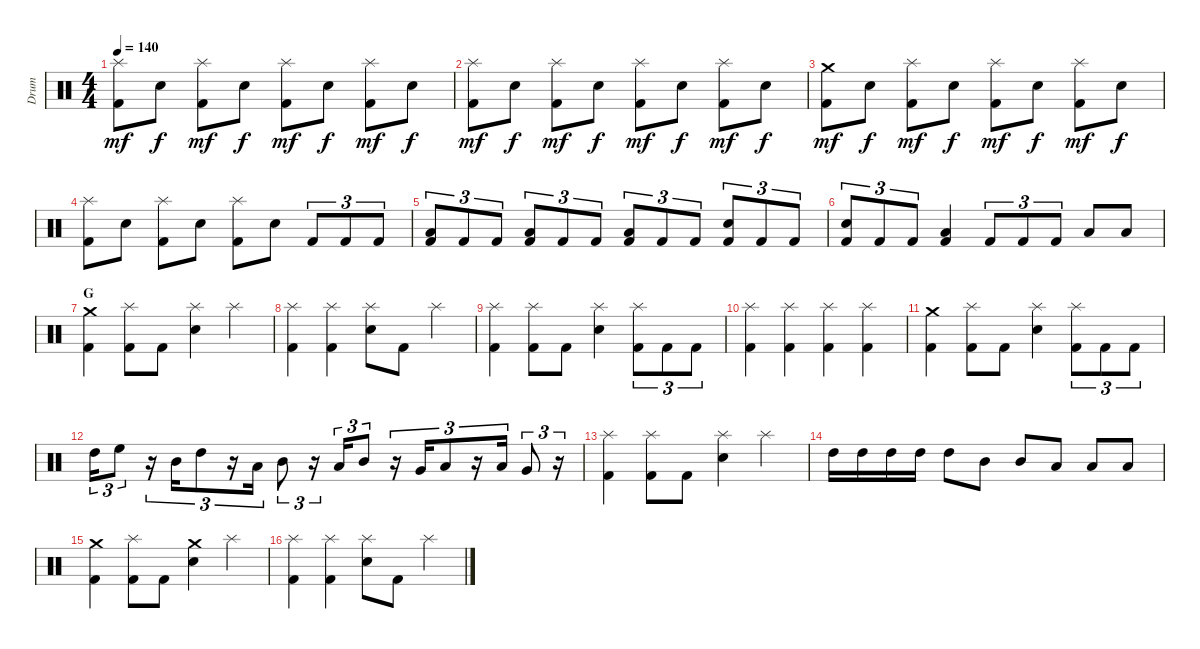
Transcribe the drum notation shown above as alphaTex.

\track ("Drum" "Drum") {instrument percussion}
\staff {score}
\articulation defaults
\ts (4 4)
\tempo 140
\clef neutral
\ks c
("Splash (hit)" "Kick (hit) 2").8{dy mf} "Electric Snare (hit)".8{dy f} ("Splash (hit)" "Kick (hit) 2").8{dy mf} "Electric Snare (hit)".8{dy f} ("Splash (hit)" "Kick (hit) 2").8{dy mf} "Electric Snare (hit)".8{dy f} ("Splash (hit)" "Kick (hit) 2").8{dy mf} "Electric Snare (hit)".8{dy f} |
("Splash (hit)" "Kick (hit) 2").8{dy mf} "Electric Snare (hit)".8{dy f} ("Splash (hit)" "Kick (hit) 2").8{dy mf} "Electric Snare (hit)".8{dy f} ("Splash (hit)" "Kick (hit) 2").8{dy mf} "Electric Snare (hit)".8{dy f} ("Splash (hit)" "Kick (hit) 2").8{dy mf} "Electric Snare (hit)".8{dy f} |
("Crash medium (hit)" "Kick (hit) 2").8{dy mf} "Electric Snare (hit)".8{dy f} ("Splash (hit)" "Kick (hit) 2").8{dy mf} "Electric Snare (hit)".8{dy f} ("Splash (hit)" "Kick (hit) 2").8{dy mf} "Electric Snare (hit)".8{dy f} ("Splash (hit)" "Kick (hit) 2").8{dy mf} "Electric Snare (hit)".8{dy f} |
("Splash (hit)" "Kick (hit) 2").8 "Electric Snare (hit)".8 ("Splash (hit)" "Kick (hit) 2").8 "Electric Snare (hit)".8 ("Splash (hit)" "Kick (hit) 2").8 "Electric Snare (hit)".8 "Kick (hit) 2".8{tu (3 2)} "Kick (hit) 2".8{tu (3 2)} "Kick (hit) 2".8{tu (3 2)} |
("Low Tom (hit)" "Kick (hit) 2").8{tu (3 2)} "Kick (hit) 2".8{tu (3 2)} "Kick (hit) 2".8{tu (3 2)} ("Low Tom (hit)" "Kick (hit) 2").8{tu (3 2)} "Kick (hit) 2".8{tu (3 2)} "Kick (hit) 2".8{tu (3 2)} ("Low Tom (hit)" "Kick (hit) 2").8{tu (3 2)} "Kick (hit) 2".8{tu (3 2)} "Kick (hit) 2".8{tu (3 2)} ("Electric Snare (hit)" "Kick (hit) 2").8{tu (3 2)} "Kick (hit) 2".8{tu (3 2)} "Kick (hit) 2".8{tu (3 2)} |
("Electric Snare (hit)" "Kick (hit) 2").8{tu (3 2)} "Kick (hit) 2".8{tu (3 2)} "Kick (hit) 2".8{tu (3 2)} ("Low Tom (hit)" "Kick (hit) 2").4 "Kick (hit) 2".8{tu (3 2)} "Kick (hit) 2".8{tu (3 2)} "Kick (hit) 2".8{tu (3 2)} "Low Tom (hit)".8 "Low Tom (hit)".8 |
\section ("" "G")
("Crash medium (hit)" "Kick (hit) 2").4 ("Splash (hit)" "Kick (hit) 2").8 "Kick (hit) 2".8 ("Splash (hit)" "Electric Snare (hit)").4 "Splash (hit)".4 |
("Splash (hit)" "Kick (hit) 2").4 ("Splash (hit)" "Kick (hit) 2").4 ("Splash (hit)" "Electric Snare (hit)").8 "Kick (hit) 2".8 "Splash (hit)".4 |
("Splash (hit)" "Kick (hit) 2").4 ("Splash (hit)" "Kick (hit) 2").8 "Kick (hit) 2".8 ("Splash (hit)" "Electric Snare (hit)").4 ("Splash (hit)" "Kick (hit) 2").8{tu (3 2)} "Kick (hit) 2".8{tu (3 2)} "Kick (hit) 2".8{tu (3 2)} |
("Splash (hit)" "Kick (hit) 2").4 ("Splash (hit)" "Kick (hit) 2").4 ("Splash (hit)" "Kick (hit) 2").4 ("Splash (hit)" "Kick (hit) 2").4 |
("Crash medium (hit)" "Kick (hit) 2").4 ("Splash (hit)" "Kick (hit) 2").8 "Kick (hit) 2".8 ("Splash (hit)" "Electric Snare (hit)").4 ("Splash (hit)" "Kick (hit) 2").8{tu (3 2)} "Kick (hit) 2".8{tu (3 2)} "Kick (hit) 2".8{tu (3 2)} |
"High Tom (hit)".16{tu (3 2)} "High Floor Tom (hit)".8{tu (3 2)} r.16{tu (3 2)} "Mid Tom (hit)".16{tu (3 2)} "High Tom (hit)".8{tu (3 2)} r.16{tu (3 2)} "Low Tom (hit)".16{tu (3 2)} "Mid Tom (hit)".8{tu (3 2)} r.16{tu (3 2)} "Low Tom (hit)".16{tu (3 2)} "Mid Tom (hit)".8{tu (3 2)} r.16{tu (3 2)} "Very Low Tom (hit)".16{tu (3 2)} "Low Tom (hit)".8{tu (3 2)} r.16{tu (3 2)} "Low Floor Tom (hit)".16{tu (3 2)} "Very Low Tom (hit)".8{tu (3 2)} r.16{tu (3 2)} |
("Splash (hit)" "Kick (hit) 2").4 ("Splash (hit)" "Kick (hit) 2").8 "Kick (hit) 2".8 ("Splash (hit)" "Electric Snare (hit)").4 "Splash (hit)".4 |
"High Tom (hit)".16 "High Tom (hit)".16 "High Tom (hit)".16 "High Tom (hit)".16 "High Tom (hit)".8 "Mid Tom (hit)".8 "Mid Tom (hit)".8 "Low Tom (hit)".8 "Low Tom (hit)".8 "Low Tom (hit)".8 |
("Crash medium (hit)" "Kick (hit) 2").4 ("Splash (hit)" "Kick (hit) 2").8 "Kick (hit) 2".8 ("Crash medium (hit)" "Electric Snare (hit)").4 "Splash (hit)".4 |
("Splash (hit)" "Kick (hit) 2").4 ("Splash (hit)" "Kick (hit) 2").4 ("Splash (hit)" "Electric Snare (hit)").8 "Kick (hit) 2".8 "Splash (hit)".4
